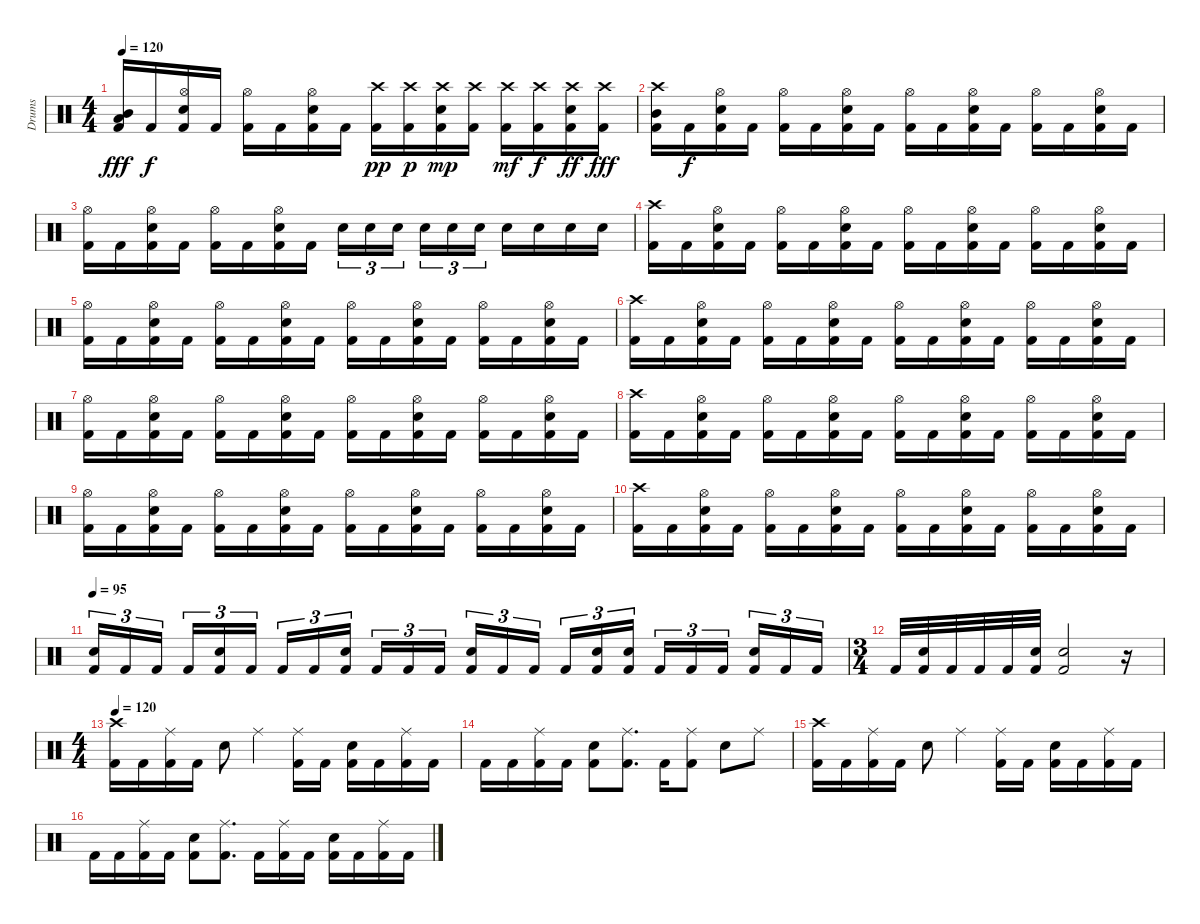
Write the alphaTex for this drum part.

\track ("Drums" "Drums") {instrument percussion}
\staff {score}
\articulation defaults
\ts (4 4)
\tempo 120
\clef neutral
\ks c
("Mid Tom (hit)" "Low Tom (hit)" "Kick (hit) 2").16{dy fff} "Kick (hit) 2".16{dy f} ("Hi-Hat (open)" "Snare (hit) 2" "Kick (hit) 2").16 "Kick (hit) 2".16 ("Hi-Hat (open)" "Kick (hit) 2").16 "Kick (hit) 2".16 ("Hi-Hat (open)" "Snare (hit) 2" "Kick (hit) 2").16 "Kick (hit) 2".16 ("Crash high (hit)" "Kick (hit) 2").16{dy pp} ("Crash high (hit)" "Kick (hit) 2").16{dy p} ("Crash high (hit)" "Snare (hit) 2" "Kick (hit) 2").16{dy mp} ("Crash high (hit)" "Kick (hit) 2").16 ("Crash high (hit)" "Kick (hit) 2").16{dy mf} ("Crash high (hit)" "Kick (hit) 2").16{dy f} ("Crash high (hit)" "Snare (hit) 2" "Kick (hit) 2").16{dy ff} ("Crash high (hit)" "Kick (hit) 2").16{dy fff} |
("Crash high (hit)" "Mid Tom (hit)" "Kick (hit) 2").16 "Kick (hit) 2".16{dy f} ("Hi-Hat (open)" "Snare (hit) 2" "Kick (hit) 2").16 "Kick (hit) 2".16 ("Hi-Hat (open)" "Kick (hit) 2").16 "Kick (hit) 2".16 ("Hi-Hat (open)" "Snare (hit) 2" "Kick (hit) 2").16 "Kick (hit) 2".16 ("Hi-Hat (open)" "Kick (hit) 2").16 "Kick (hit) 2".16 ("Hi-Hat (open)" "Snare (hit) 2" "Kick (hit) 2").16 "Kick (hit) 2".16 ("Hi-Hat (open)" "Kick (hit) 2").16 "Kick (hit) 2".16 ("Hi-Hat (open)" "Snare (hit) 2" "Kick (hit) 2").16 "Kick (hit) 2".16 |
("Hi-Hat (open)" "Kick (hit) 2").16 "Kick (hit) 2".16 ("Hi-Hat (open)" "Snare (hit) 2" "Kick (hit) 2").16 "Kick (hit) 2".16 ("Hi-Hat (open)" "Kick (hit) 2").16 "Kick (hit) 2".16 ("Hi-Hat (open)" "Snare (hit) 2" "Kick (hit) 2").16 "Kick (hit) 2".16 "Snare (hit) 2".16{tu (3 2)} "Snare (hit) 2".16{tu (3 2)} "Snare (hit) 2".16{tu (3 2) beam splitsecondary} "Snare (hit) 2".16{tu (3 2)} "Snare (hit) 2".16{tu (3 2)} "Snare (hit) 2".16{tu (3 2)} "Snare (hit) 2".16 "Snare (hit) 2".16 "Snare (hit) 2".16 "Snare (hit) 2".16 |
("Crash high (hit)" "Kick (hit) 2").16 "Kick (hit) 2".16 ("Hi-Hat (open)" "Snare (hit) 2" "Kick (hit) 2").16 "Kick (hit) 2".16 ("Hi-Hat (open)" "Kick (hit) 2").16 "Kick (hit) 2".16 ("Hi-Hat (open)" "Snare (hit) 2" "Kick (hit) 2").16 "Kick (hit) 2".16 ("Hi-Hat (open)" "Kick (hit) 2").16 "Kick (hit) 2".16 ("Hi-Hat (open)" "Snare (hit) 2" "Kick (hit) 2").16 "Kick (hit) 2".16 ("Hi-Hat (open)" "Kick (hit) 2").16 "Kick (hit) 2".16 ("Hi-Hat (open)" "Snare (hit) 2" "Kick (hit) 2").16 "Kick (hit) 2".16 |
("Hi-Hat (open)" "Kick (hit) 2").16 "Kick (hit) 2".16 ("Hi-Hat (open)" "Snare (hit) 2" "Kick (hit) 2").16 "Kick (hit) 2".16 ("Hi-Hat (open)" "Kick (hit) 2").16 "Kick (hit) 2".16 ("Hi-Hat (open)" "Snare (hit) 2" "Kick (hit) 2").16 "Kick (hit) 2".16 ("Hi-Hat (open)" "Kick (hit) 2").16 "Kick (hit) 2".16 ("Hi-Hat (open)" "Snare (hit) 2" "Kick (hit) 2").16 "Kick (hit) 2".16 ("Hi-Hat (open)" "Kick (hit) 2").16 "Kick (hit) 2".16 ("Hi-Hat (open)" "Snare (hit) 2" "Kick (hit) 2").16 "Kick (hit) 2".16 |
("Crash high (hit)" "Kick (hit) 2").16 "Kick (hit) 2".16 ("Hi-Hat (open)" "Snare (hit) 2" "Kick (hit) 2").16 "Kick (hit) 2".16 ("Hi-Hat (open)" "Kick (hit) 2").16 "Kick (hit) 2".16 ("Hi-Hat (open)" "Snare (hit) 2" "Kick (hit) 2").16 "Kick (hit) 2".16 ("Hi-Hat (open)" "Kick (hit) 2").16 "Kick (hit) 2".16 ("Hi-Hat (open)" "Snare (hit) 2" "Kick (hit) 2").16 "Kick (hit) 2".16 ("Hi-Hat (open)" "Kick (hit) 2").16 "Kick (hit) 2".16 ("Hi-Hat (open)" "Snare (hit) 2" "Kick (hit) 2").16 "Kick (hit) 2".16 |
("Hi-Hat (open)" "Kick (hit) 2").16 "Kick (hit) 2".16 ("Hi-Hat (open)" "Snare (hit) 2" "Kick (hit) 2").16 "Kick (hit) 2".16 ("Hi-Hat (open)" "Kick (hit) 2").16 "Kick (hit) 2".16 ("Hi-Hat (open)" "Snare (hit) 2" "Kick (hit) 2").16 "Kick (hit) 2".16 ("Hi-Hat (open)" "Kick (hit) 2").16 "Kick (hit) 2".16 ("Hi-Hat (open)" "Snare (hit) 2" "Kick (hit) 2").16 "Kick (hit) 2".16 ("Hi-Hat (open)" "Kick (hit) 2").16 "Kick (hit) 2".16 ("Hi-Hat (open)" "Snare (hit) 2" "Kick (hit) 2").16 "Kick (hit) 2".16 |
("Crash high (hit)" "Kick (hit) 2").16 "Kick (hit) 2".16 ("Hi-Hat (open)" "Snare (hit) 2" "Kick (hit) 2").16 "Kick (hit) 2".16 ("Hi-Hat (open)" "Kick (hit) 2").16 "Kick (hit) 2".16 ("Hi-Hat (open)" "Snare (hit) 2" "Kick (hit) 2").16 "Kick (hit) 2".16 ("Hi-Hat (open)" "Kick (hit) 2").16 "Kick (hit) 2".16 ("Hi-Hat (open)" "Snare (hit) 2" "Kick (hit) 2").16 "Kick (hit) 2".16 ("Hi-Hat (open)" "Kick (hit) 2").16 "Kick (hit) 2".16 ("Hi-Hat (open)" "Snare (hit) 2" "Kick (hit) 2").16 "Kick (hit) 2".16 |
("Hi-Hat (open)" "Kick (hit) 2").16 "Kick (hit) 2".16 ("Hi-Hat (open)" "Snare (hit) 2" "Kick (hit) 2").16 "Kick (hit) 2".16 ("Hi-Hat (open)" "Kick (hit) 2").16 "Kick (hit) 2".16 ("Hi-Hat (open)" "Snare (hit) 2" "Kick (hit) 2").16 "Kick (hit) 2".16 ("Hi-Hat (open)" "Kick (hit) 2").16 "Kick (hit) 2".16 ("Hi-Hat (open)" "Snare (hit) 2" "Kick (hit) 2").16 "Kick (hit) 2".16 ("Hi-Hat (open)" "Kick (hit) 2").16 "Kick (hit) 2".16 ("Hi-Hat (open)" "Snare (hit) 2" "Kick (hit) 2").16 "Kick (hit) 2".16 |
("Crash high (hit)" "Kick (hit) 2").16 "Kick (hit) 2".16 ("Hi-Hat (open)" "Snare (hit) 2" "Kick (hit) 2").16 "Kick (hit) 2".16 ("Hi-Hat (open)" "Kick (hit) 2").16 "Kick (hit) 2".16 ("Hi-Hat (open)" "Snare (hit) 2" "Kick (hit) 2").16 "Kick (hit) 2".16 ("Hi-Hat (open)" "Kick (hit) 2").16 "Kick (hit) 2".16 ("Hi-Hat (open)" "Snare (hit) 2" "Kick (hit) 2").16 "Kick (hit) 2".16 ("Hi-Hat (open)" "Kick (hit) 2").16 "Kick (hit) 2".16 ("Hi-Hat (open)" "Snare (hit) 2" "Kick (hit) 2").16 "Kick (hit) 2".16 |
\tempo 95
("Snare (hit) 2" "Kick (hit) 2").16{tu (3 2)} "Kick (hit) 2".16{tu (3 2)} "Kick (hit) 2".16{tu (3 2) beam splitsecondary} "Kick (hit) 2".16{tu (3 2)} ("Snare (hit) 2" "Kick (hit) 2").16{tu (3 2)} "Kick (hit) 2".16{tu (3 2)} "Kick (hit) 2".16{tu (3 2)} "Kick (hit) 2".16{tu (3 2)} ("Snare (hit) 2" "Kick (hit) 2").16{tu (3 2) beam splitsecondary} "Kick (hit) 2".16{tu (3 2)} "Kick (hit) 2".16{tu (3 2)} "Kick (hit) 2".16{tu (3 2)} ("Snare (hit) 2" "Kick (hit) 2").16{tu (3 2)} "Kick (hit) 2".16{tu (3 2)} "Kick (hit) 2".16{tu (3 2) beam splitsecondary} "Kick (hit) 2".16{tu (3 2)} ("Snare (hit) 2" "Kick (hit) 2").16{tu (3 2)} ("Snare (hit) 2" "Kick (hit) 2").16{tu (3 2)} "Kick (hit) 2".16{tu (3 2)} "Kick (hit) 2".16{tu (3 2)} "Kick (hit) 2".16{tu (3 2) beam splitsecondary} ("Snare (hit) 2" "Kick (hit) 2").16{tu (3 2)} "Kick (hit) 2".16{tu (3 2)} "Kick (hit) 2".16{tu (3 2)} |
\ts (3 4)
"Kick (hit) 2".32 ("Snare (hit) 2" "Kick (hit) 2").32 "Kick (hit) 2".32 "Kick (hit) 2".32 "Kick (hit) 2".32 ("Snare (hit) 2" "Kick (hit) 2").32 ("Snare (hit) 2" "Kick (hit) 2").2 r.16 |
\ts (4 4)
\tempo 120
("Crash high (hit)" "Kick (hit) 2").16 "Kick (hit) 2".16 ("Ride (middle)" "Kick (hit) 2").16 "Kick (hit) 2".16 "Snare (hit) 2".8 "Ride (middle)".4 ("Ride (middle)" "Kick (hit) 2").16 "Kick (hit) 2".16 ("Snare (hit) 2" "Kick (hit) 2").16 "Kick (hit) 2".16 ("Ride (middle)" "Kick (hit) 2").16 "Kick (hit) 2".16 |
"Kick (hit) 2".16 "Kick (hit) 2".16 ("Ride (middle)" "Kick (hit) 2").16 "Kick (hit) 2".16 ("Snare (hit) 2" "Kick (hit) 2").8 ("Ride (middle)" "Kick (hit) 2").8{d} "Kick (hit) 2".16 ("Ride (middle)" "Kick (hit) 2").8 "Snare (hit) 2".8 "Ride (middle)".8 |
("Crash high (hit)" "Kick (hit) 2").16 "Kick (hit) 2".16 ("Ride (middle)" "Kick (hit) 2").16 "Kick (hit) 2".16 "Snare (hit) 2".8 "Ride (middle)".4 ("Ride (middle)" "Kick (hit) 2").16 "Kick (hit) 2".16 ("Snare (hit) 2" "Kick (hit) 2").16 "Kick (hit) 2".16 ("Ride (middle)" "Kick (hit) 2").16 "Kick (hit) 2".16 |
"Kick (hit) 2".16 "Kick (hit) 2".16 ("Ride (middle)" "Kick (hit) 2").16 "Kick (hit) 2".16 ("Snare (hit) 2" "Kick (hit) 2").8 ("Ride (middle)" "Kick (hit) 2").8{d} "Kick (hit) 2".16 ("Ride (middle)" "Kick (hit) 2").16 "Kick (hit) 2".16 ("Snare (hit) 2" "Kick (hit) 2").16 "Kick (hit) 2".16 ("Ride (middle)" "Kick (hit) 2").16 "Kick (hit) 2".16
